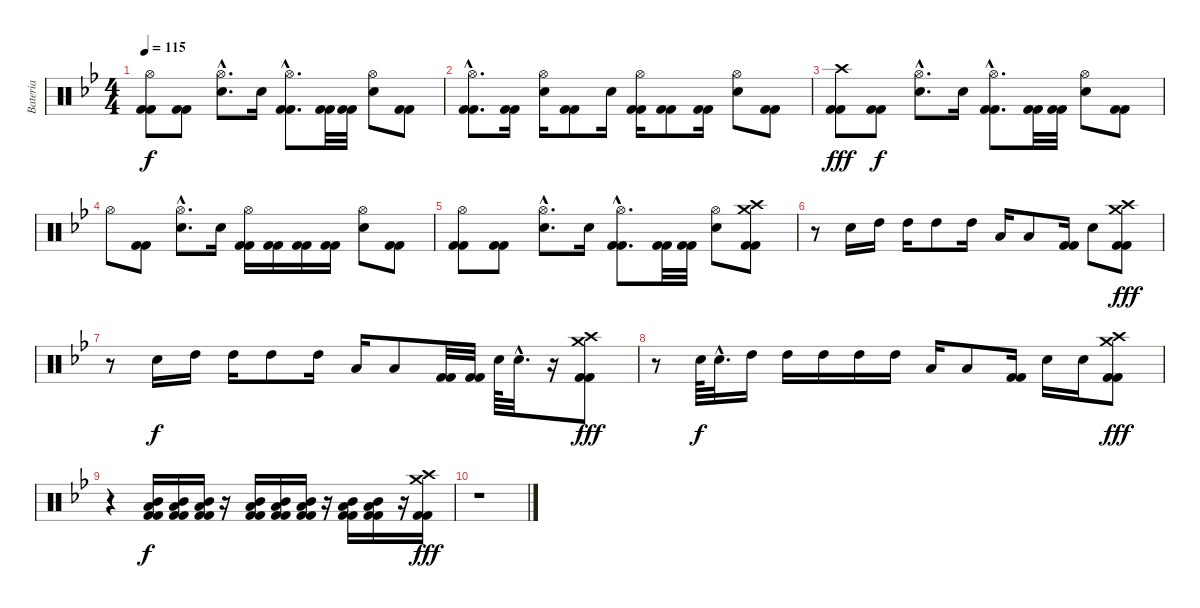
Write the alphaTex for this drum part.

\track ("Bateria" "Bateria") {instrument percussion}
\staff {score}
\articulation defaults
\ts (4 4)
\tempo 115
\clef neutral
\ks bb
("Hi-Hat (open)" "Kick (hit) 2" "Kick (hit) 2").8{dy f} ("Kick (hit) 2" "Kick (hit) 2").8 ("Hi-Hat (open)"{hac} "Electric Snare (hit)"{hac}).8{d} "Electric Snare (hit)".16 ("Hi-Hat (open)"{hac} "Kick (hit) 2"{hac} "Kick (hit) 2"{hac}).8{d} ("Kick (hit) 2" "Kick (hit) 2").32 ("Kick (hit) 2" "Kick (hit) 2").32 ("Hi-Hat (open)" "Electric Snare (hit)").8 ("Kick (hit) 2" "Kick (hit) 2").8 |
("Hi-Hat (open)"{hac} "Kick (hit) 2"{hac} "Kick (hit) 2"{hac}).8{d} ("Kick (hit) 2" "Kick (hit) 2").16 ("Hi-Hat (open)" "Electric Snare (hit)").16 ("Kick (hit) 2" "Kick (hit) 2").8 "Electric Snare (hit)".16 ("Hi-Hat (open)" "Kick (hit) 2" "Kick (hit) 2").16 ("Kick (hit) 2" "Kick (hit) 2").8 ("Kick (hit) 2" "Kick (hit) 2").16 ("Hi-Hat (open)" "Electric Snare (hit)").8 ("Kick (hit) 2" "Kick (hit) 2").8 |
("Crash high (hit)" "Kick (hit) 2" "Kick (hit) 2").8{dy fff} ("Kick (hit) 2" "Kick (hit) 2").8{dy f} ("Hi-Hat (open)"{hac} "Electric Snare (hit)"{hac}).8{d} "Electric Snare (hit)".16 ("Hi-Hat (open)"{hac} "Kick (hit) 2"{hac} "Kick (hit) 2"{hac}).8{d} ("Kick (hit) 2" "Kick (hit) 2").32 ("Kick (hit) 2" "Kick (hit) 2").32 ("Hi-Hat (open)" "Electric Snare (hit)").8 ("Kick (hit) 2" "Kick (hit) 2").8 |
"Hi-Hat (open)".8 ("Kick (hit) 2" "Kick (hit) 2").8 ("Hi-Hat (open)"{hac} "Electric Snare (hit)"{hac}).8{d} "Electric Snare (hit)".16 ("Hi-Hat (open)" "Kick (hit) 2" "Kick (hit) 2").16 ("Kick (hit) 2" "Kick (hit) 2").16 ("Kick (hit) 2" "Kick (hit) 2").16 ("Kick (hit) 2" "Kick (hit) 2").16 ("Hi-Hat (open)" "Electric Snare (hit)").8 ("Kick (hit) 2" "Kick (hit) 2").8 |
("Hi-Hat (open)" "Kick (hit) 2" "Kick (hit) 2").8 ("Kick (hit) 2" "Kick (hit) 2").8 ("Hi-Hat (open)"{hac} "Electric Snare (hit)"{hac}).8{d} "Electric Snare (hit)".16 ("Hi-Hat (open)"{hac} "Kick (hit) 2"{hac} "Kick (hit) 2"{hac}).8{d} ("Kick (hit) 2" "Kick (hit) 2").32 ("Kick (hit) 2" "Kick (hit) 2").32 ("Hi-Hat (open)" "Electric Snare (hit)").8 ("Crash high (hit)" "Crash medium (hit)" "Kick (hit) 2" "Kick (hit) 2").8 |
r.8 "Electric Snare (hit)".16 "High Tom (hit)".16 "High Tom (hit)".16 "High Tom (hit)".8 "High Tom (hit)".16 "Low Tom (hit)".16 "Low Tom (hit)".8 ("Kick (hit) 2" "Kick (hit) 2").16 "Electric Snare (hit)".8 ("Crash high (hit)" "Crash medium (hit)" "Kick (hit) 2" "Kick (hit) 2").8{dy fff} |
r.8 "Electric Snare (hit)".16{dy f} "High Tom (hit)".16 "High Tom (hit)".16 "High Tom (hit)".8 "High Tom (hit)".16 "Low Tom (hit)".16 "Low Tom (hit)".8 ("Kick (hit) 2" "Kick (hit) 2").32 ("Kick (hit) 2" "Kick (hit) 2").32 "Electric Snare (hit)".64 "Electric Snare (hit)"{hac}.32{d} r.16 ("Crash high (hit)" "Crash medium (hit)" "Kick (hit) 2" "Kick (hit) 2").8{dy fff} |
r.8 "Electric Snare (hit)".64{dy f} "Electric Snare (hit)"{hac}.32{d} "High Tom (hit)".16 "High Tom (hit)".16 "High Tom (hit)".16 "High Tom (hit)".16 "High Tom (hit)".16 "Low Tom (hit)".16 "Low Tom (hit)".8 ("Kick (hit) 2" "Kick (hit) 2").16 "Electric Snare (hit)".16 "Electric Snare (hit)".16 ("Crash high (hit)" "Crash medium (hit)" "Kick (hit) 2" "Kick (hit) 2").8{dy fff} |
r.4 ("Mid Tom (hit)" "Low Tom (hit)" "Kick (hit) 2" "Kick (hit) 2").16{dy f} ("Mid Tom (hit)" "Low Tom (hit)" "Kick (hit) 2" "Kick (hit) 2").16 ("Mid Tom (hit)" "Low Tom (hit)" "Kick (hit) 2" "Kick (hit) 2").16 r.16 ("Mid Tom (hit)" "Low Tom (hit)" "Kick (hit) 2" "Kick (hit) 2").16 ("Mid Tom (hit)" "Low Tom (hit)" "Kick (hit) 2" "Kick (hit) 2").16 ("Mid Tom (hit)" "Low Tom (hit)" "Kick (hit) 2" "Kick (hit) 2").16 r.16 ("Mid Tom (hit)" "Low Tom (hit)" "Kick (hit) 2" "Kick (hit) 2").16 ("Mid Tom (hit)" "Low Tom (hit)" "Kick (hit) 2" "Kick (hit) 2").16 r.16 ("Crash high (hit)" "Crash medium (hit)" "Kick (hit) 2" "Kick (hit) 2").16{dy fff} |
r.1
